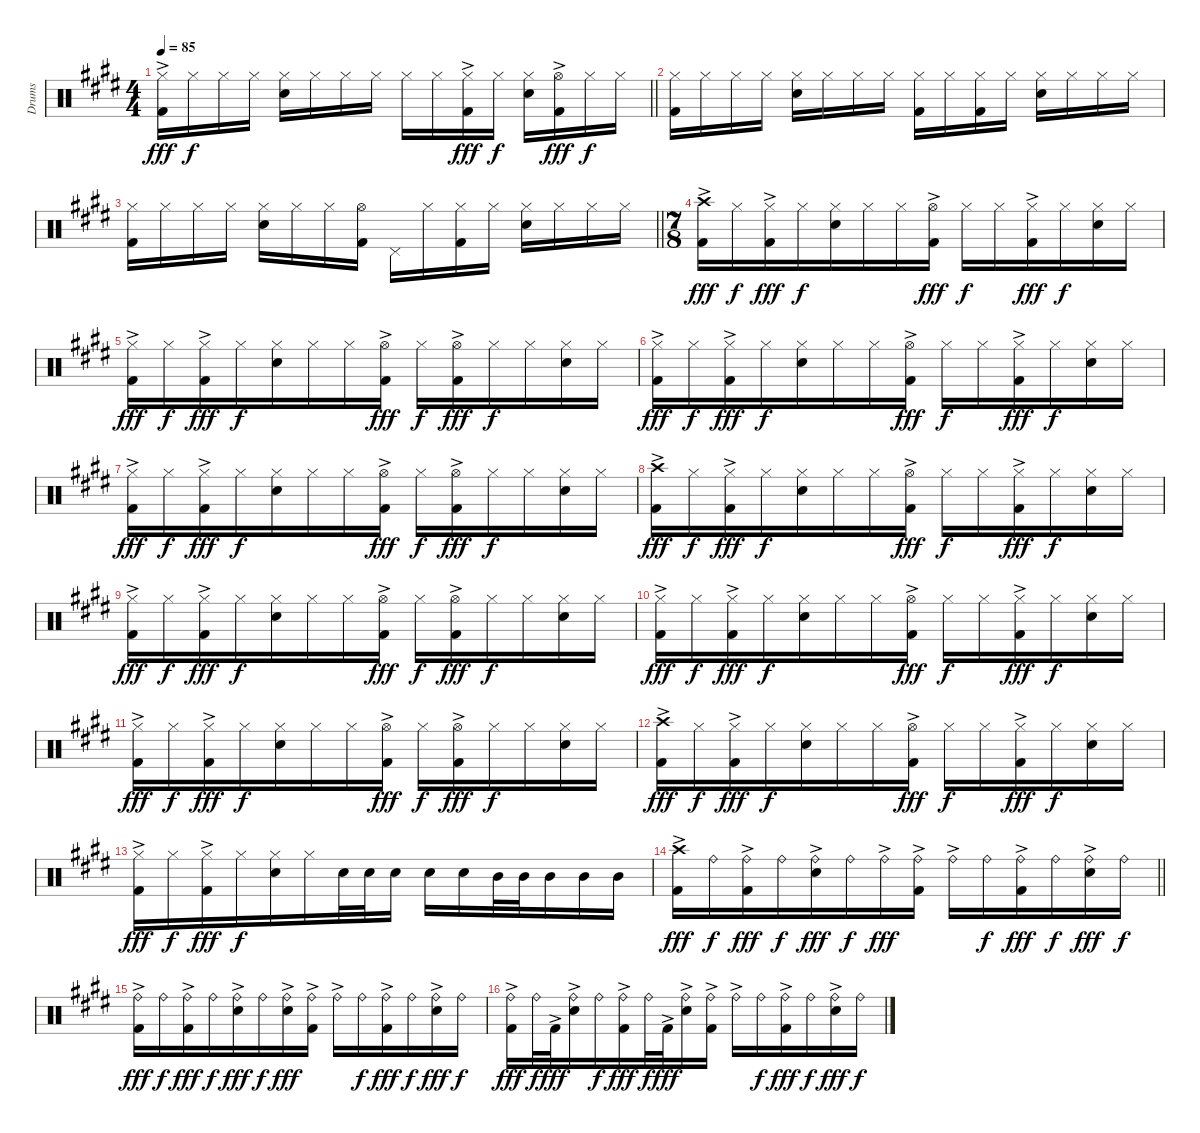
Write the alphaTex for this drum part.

\track ("Drums" "Drums") {instrument percussion}
\staff {score}
\articulation defaults
\ts (4 4)
\tempo 85
\clef neutral
\barLineRight lightlight
\ks e
("Hi-Hat (closed)" "Kick (hit) 2"{ac}).16{dy fff} "Hi-Hat (closed)".16{dy f} "Hi-Hat (closed)".16 "Hi-Hat (closed)".16 ("Hi-Hat (closed)" "Snare (hit) 2").16 "Hi-Hat (closed)".16 "Hi-Hat (closed)".16 "Hi-Hat (closed)".16 "Hi-Hat (closed)".16 "Hi-Hat (closed)".16 ("Hi-Hat (closed)" "Kick (hit) 2"{ac}).16{dy fff} "Hi-Hat (closed)".16{dy f} ("Hi-Hat (closed)" "Snare (hit) 2").16 ("Hi-Hat (open)" "Kick (hit) 2"{ac}).16{dy fff} "Hi-Hat (closed)".16{dy f} "Hi-Hat (closed)".16 |
("Hi-Hat (closed)" "Kick (hit) 2").16 "Hi-Hat (closed)".16 "Hi-Hat (closed)".16 "Hi-Hat (closed)".16 ("Hi-Hat (closed)" "Snare (hit) 2").16 "Hi-Hat (closed)".16 "Hi-Hat (closed)".16 "Hi-Hat (closed)".16 ("Hi-Hat (closed)" "Kick (hit) 2").16 "Hi-Hat (closed)".16 ("Hi-Hat (closed)" "Kick (hit) 2").16 "Hi-Hat (closed)".16 ("Hi-Hat (closed)" "Snare (hit) 2").16 "Hi-Hat (closed)".16 "Hi-Hat (closed)".16 "Hi-Hat (closed)".16 |
\barLineRight lightlight
("Hi-Hat (closed)" "Kick (hit) 2").16 "Hi-Hat (closed)".16 "Hi-Hat (closed)".16 "Hi-Hat (closed)".16 ("Hi-Hat (closed)" "Snare (hit) 2").16 "Hi-Hat (closed)".16 "Hi-Hat (closed)".16 ("Hi-Hat (open)" "Kick (hit) 2").16 "Pedal Hi-Hat (hit)".16 "Hi-Hat (closed)".16 ("Hi-Hat (closed)" "Kick (hit) 2").16 "Hi-Hat (closed)".16 ("Hi-Hat (closed)" "Snare (hit) 2").16 "Hi-Hat (closed)".16 "Hi-Hat (closed)".16 "Hi-Hat (closed)".16 |
\ts (7 8)
("Crash high (hit)" "Kick (hit) 2"{ac}).16{dy fff} "Hi-Hat (closed)".16{dy f} ("Hi-Hat (closed)" "Kick (hit) 2"{ac}).16{dy fff} "Hi-Hat (closed)".16{dy f} ("Hi-Hat (closed)" "Snare (hit) 2").16 "Hi-Hat (closed)".16 "Hi-Hat (closed)".16 ("Hi-Hat (open)" "Kick (hit) 2"{ac}).16{dy fff} "Hi-Hat (closed)".16{dy f} "Hi-Hat (closed)".16 ("Hi-Hat (closed)" "Kick (hit) 2"{ac}).16{dy fff} "Hi-Hat (closed)".16{dy f} ("Hi-Hat (closed)" "Snare (hit) 2").16 "Hi-Hat (closed)".16 |
("Hi-Hat (closed)" "Kick (hit) 2"{ac}).16{dy fff} "Hi-Hat (closed)".16{dy f} ("Hi-Hat (closed)" "Kick (hit) 2"{ac}).16{dy fff} "Hi-Hat (closed)".16{dy f} ("Hi-Hat (closed)" "Snare (hit) 2").16 "Hi-Hat (closed)".16 "Hi-Hat (closed)".16 ("Hi-Hat (open)" "Kick (hit) 2"{ac}).16{dy fff} "Hi-Hat (closed)".16{dy f} ("Hi-Hat (open)" "Kick (hit) 2"{ac}).16{dy fff} "Hi-Hat (closed)".16{dy f} "Hi-Hat (closed)".16 ("Hi-Hat (closed)" "Snare (hit) 2").16 "Hi-Hat (closed)".16 |
("Hi-Hat (closed)" "Kick (hit) 2"{ac}).16{dy fff} "Hi-Hat (closed)".16{dy f} ("Hi-Hat (closed)" "Kick (hit) 2"{ac}).16{dy fff} "Hi-Hat (closed)".16{dy f} ("Hi-Hat (closed)" "Snare (hit) 2").16 "Hi-Hat (closed)".16 "Hi-Hat (closed)".16 ("Hi-Hat (open)" "Kick (hit) 2"{ac}).16{dy fff} "Hi-Hat (closed)".16{dy f} "Hi-Hat (closed)".16 ("Hi-Hat (closed)" "Kick (hit) 2"{ac}).16{dy fff} "Hi-Hat (closed)".16{dy f} ("Hi-Hat (closed)" "Snare (hit) 2").16 "Hi-Hat (closed)".16 |
("Hi-Hat (closed)" "Kick (hit) 2"{ac}).16{dy fff} "Hi-Hat (closed)".16{dy f} ("Hi-Hat (closed)" "Kick (hit) 2"{ac}).16{dy fff} "Hi-Hat (closed)".16{dy f} ("Hi-Hat (closed)" "Snare (hit) 2").16 "Hi-Hat (closed)".16 "Hi-Hat (closed)".16 ("Hi-Hat (open)" "Kick (hit) 2"{ac}).16{dy fff} "Hi-Hat (closed)".16{dy f} ("Hi-Hat (open)" "Kick (hit) 2"{ac}).16{dy fff} "Hi-Hat (closed)".16{dy f} "Hi-Hat (closed)".16 ("Hi-Hat (closed)" "Snare (hit) 2").16 "Hi-Hat (closed)".16 |
("Crash high (hit)" "Kick (hit) 2"{ac}).16{dy fff} "Hi-Hat (closed)".16{dy f} ("Hi-Hat (closed)" "Kick (hit) 2"{ac}).16{dy fff} "Hi-Hat (closed)".16{dy f} ("Hi-Hat (closed)" "Snare (hit) 2").16 "Hi-Hat (closed)".16 "Hi-Hat (closed)".16 ("Hi-Hat (open)" "Kick (hit) 2"{ac}).16{dy fff} "Hi-Hat (closed)".16{dy f} "Hi-Hat (closed)".16 ("Hi-Hat (closed)" "Kick (hit) 2"{ac}).16{dy fff} "Hi-Hat (closed)".16{dy f} ("Hi-Hat (closed)" "Snare (hit) 2").16 "Hi-Hat (closed)".16 |
("Hi-Hat (closed)" "Kick (hit) 2"{ac}).16{dy fff} "Hi-Hat (closed)".16{dy f} ("Hi-Hat (closed)" "Kick (hit) 2"{ac}).16{dy fff} "Hi-Hat (closed)".16{dy f} ("Hi-Hat (closed)" "Snare (hit) 2").16 "Hi-Hat (closed)".16 "Hi-Hat (closed)".16 ("Hi-Hat (open)" "Kick (hit) 2"{ac}).16{dy fff} "Hi-Hat (closed)".16{dy f} ("Hi-Hat (open)" "Kick (hit) 2"{ac}).16{dy fff} "Hi-Hat (closed)".16{dy f} "Hi-Hat (closed)".16 ("Hi-Hat (closed)" "Snare (hit) 2").16 "Hi-Hat (closed)".16 |
("Hi-Hat (closed)" "Kick (hit) 2"{ac}).16{dy fff} "Hi-Hat (closed)".16{dy f} ("Hi-Hat (closed)" "Kick (hit) 2"{ac}).16{dy fff} "Hi-Hat (closed)".16{dy f} ("Hi-Hat (closed)" "Snare (hit) 2").16 "Hi-Hat (closed)".16 "Hi-Hat (closed)".16 ("Hi-Hat (open)" "Kick (hit) 2"{ac}).16{dy fff} "Hi-Hat (closed)".16{dy f} "Hi-Hat (closed)".16 ("Hi-Hat (closed)" "Kick (hit) 2"{ac}).16{dy fff} "Hi-Hat (closed)".16{dy f} ("Hi-Hat (closed)" "Snare (hit) 2").16 "Hi-Hat (closed)".16 |
("Hi-Hat (closed)" "Kick (hit) 2"{ac}).16{dy fff} "Hi-Hat (closed)".16{dy f} ("Hi-Hat (closed)" "Kick (hit) 2"{ac}).16{dy fff} "Hi-Hat (closed)".16{dy f} ("Hi-Hat (closed)" "Snare (hit) 2").16 "Hi-Hat (closed)".16 "Hi-Hat (closed)".16 ("Hi-Hat (open)" "Kick (hit) 2"{ac}).16{dy fff} "Hi-Hat (closed)".16{dy f} ("Hi-Hat (open)" "Kick (hit) 2"{ac}).16{dy fff} "Hi-Hat (closed)".16{dy f} "Hi-Hat (closed)".16 ("Hi-Hat (closed)" "Snare (hit) 2").16 "Hi-Hat (closed)".16 |
("Crash high (hit)" "Kick (hit) 2"{ac}).16{dy fff} "Hi-Hat (closed)".16{dy f} ("Hi-Hat (closed)" "Kick (hit) 2"{ac}).16{dy fff} "Hi-Hat (closed)".16{dy f} ("Hi-Hat (closed)" "Snare (hit) 2").16 "Hi-Hat (closed)".16 "Hi-Hat (closed)".16 ("Hi-Hat (open)" "Kick (hit) 2"{ac}).16{dy fff} "Hi-Hat (closed)".16{dy f} "Hi-Hat (closed)".16 ("Hi-Hat (closed)" "Kick (hit) 2"{ac}).16{dy fff} "Hi-Hat (closed)".16{dy f} ("Hi-Hat (closed)" "Snare (hit) 2").16 "Hi-Hat (closed)".16 |
("Hi-Hat (closed)" "Kick (hit) 2"{ac}).16{dy fff} "Hi-Hat (closed)".16{dy f} ("Hi-Hat (closed)" "Kick (hit) 2"{ac}).16{dy fff} "Hi-Hat (closed)".16{dy f} ("Hi-Hat (closed)" "Snare (hit) 2").16 "Hi-Hat (closed)".16 "Snare (hit) 2".32 "Snare (hit) 2".32 "Snare (hit) 2".16 "Snare (hit) 2".16 "Snare (hit) 2".16 "Mid Tom (hit)".32 "Mid Tom (hit)".32 "Mid Tom (hit)".16 "Mid Tom (hit)".16 "Mid Tom (hit)".16 |
\barLineRight lightlight
("Crash high (hit)" "Kick (hit) 2"{ac}).16{dy fff} "Ride (bell)".16{dy f} ("Ride (bell)"{ac} "Kick (hit) 2"{ac}).16{dy fff} "Ride (bell)".16{dy f} ("Ride (bell)"{ac} "Snare (hit) 2").16{dy fff} "Ride (bell)".16{dy f} "Ride (bell)"{ac}.16{dy fff} ("Ride (bell)" "Kick (hit) 2"{ac}).16 "Ride (bell)"{ac}.16 "Ride (bell)".16{dy f} ("Ride (bell)"{ac} "Kick (hit) 2"{ac}).16{dy fff} "Ride (bell)".16{dy f} ("Ride (bell)"{ac} "Snare (hit) 2").16{dy fff} "Ride (bell)".16{dy f} |
("Ride (bell)"{ac} "Kick (hit) 2"{ac}).16{dy fff} "Ride (bell)".16{dy f} ("Ride (bell)"{ac} "Kick (hit) 2"{ac}).16{dy fff} "Ride (bell)".16{dy f} ("Ride (bell)"{ac} "Snare (hit) 2").16{dy fff} "Ride (bell)".16{dy f} ("Ride (bell)"{ac} "Snare (hit) 2").16{dy fff} ("Ride (bell)" "Kick (hit) 2"{ac}).16 "Ride (bell)"{ac}.16 "Ride (bell)".16{dy f} ("Ride (bell)"{ac} "Kick (hit) 2"{ac}).16{dy fff} "Ride (bell)".16{dy f} ("Ride (bell)"{ac} "Snare (hit) 2").16{dy fff} "Ride (bell)".16{dy f} |
("Ride (bell)"{ac} "Kick (hit) 2"{ac}).16{dy fff} "Ride (bell)".32{dy f} "Kick (hit) 2"{ac}.32{dy fff} ("Ride (bell)"{ac} "Snare (hit) 2").16 "Ride (bell)".16{dy f} ("Ride (bell)"{ac} "Kick (hit) 2"{ac}).16{dy fff} "Ride (bell)".32{dy f} "Kick (hit) 2"{ac}.32{dy fff} ("Ride (bell)"{ac} "Snare (hit) 2").16 ("Ride (bell)" "Kick (hit) 2"{ac}).16 "Ride (bell)"{ac}.16 "Ride (bell)".16{dy f} ("Ride (bell)"{ac} "Kick (hit) 2"{ac}).16{dy fff} "Ride (bell)".16{dy f} ("Ride (bell)"{ac} "Snare (hit) 2").16{dy fff} "Ride (bell)".16{dy f}
